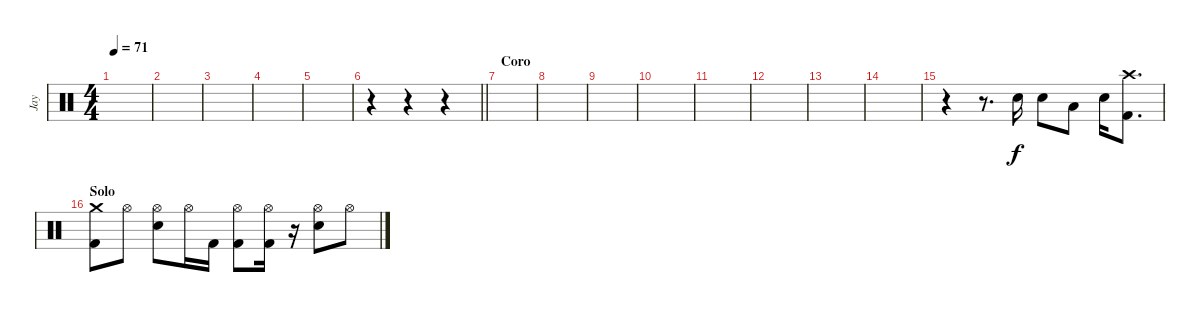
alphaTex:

\track ("Jay " "Jay ") {instrument percussion}
\staff {score}
\articulation defaults
\ts (4 4)
\tempo 71
\clef neutral
\ks c
|
|
|
|
|
\barLineRight lightlight
r.4 r.4 r.4 |
\section ("" "Coro")
|
|
|
|
|
|
|
|
r.4 r.8{d} "Snare (hit) 2".16 "Snare (hit) 2".8 "Low Tom (hit)".8 "Snare (hit) 2".16 ("Kick (hit) 2" "Crash high (hit)").8{d} |
\section ("" "Solo")
("Crash medium (hit)" "Kick (hit) 2").8 "Hi-Hat (open)".8 ("Hi-Hat (open)" "Snare (hit) 2").8 "Hi-Hat (open)".16 "Kick (hit) 2".16 ("Hi-Hat (open)" "Kick (hit) 2").8 ("Hi-Hat (open)" "Kick (hit) 2").16 r.16 ("Hi-Hat (open)" "Snare (hit) 2").8 "Hi-Hat (open)".8
